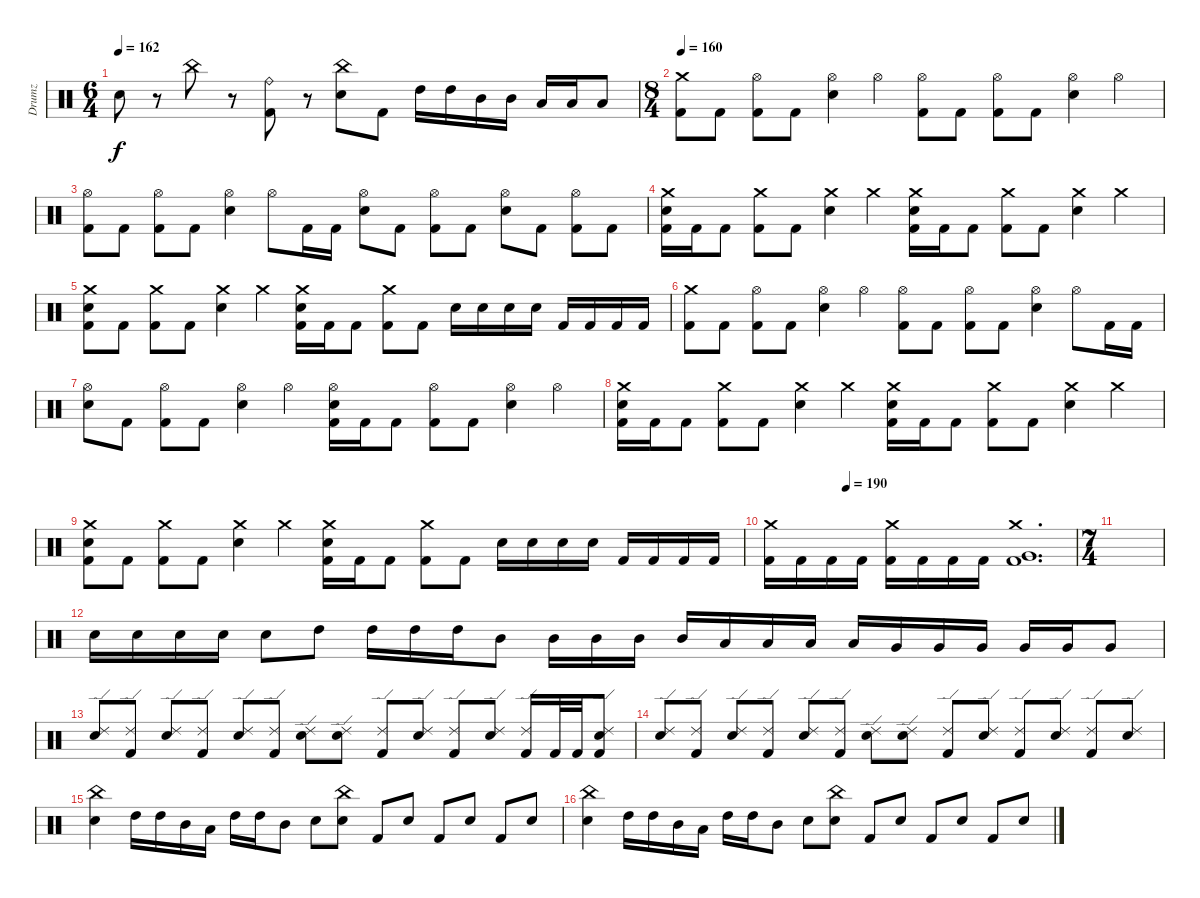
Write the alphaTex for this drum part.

\track ("Drumz" "Drumz") {instrument percussion}
\staff {score}
\articulation defaults
\ts (6 4)
\tempo 162
\clef neutral
\ks c "Electric Snare (hit)".8{dy f}
r.8 "China (hit)".8 r.8 ("Ride (bell)" "Kick (hit) 2").8 r.8 ("China (hit)" "Electric Snare (hit)").8 "Kick (hit) 2".8 "High Tom (hit)".16 "High Tom (hit)".16 "Mid Tom (hit)".16 "Mid Tom (hit)".16 "Low Tom (hit)".16 "Low Tom (hit)".16 "Low Tom (hit)".8 |
\ts (8 4)
\tempo 160
("Crash medium (hit)" "Kick (hit) 2").8 "Kick (hit) 2".8 ("Hi-Hat (open)" "Kick (hit) 2").8 "Kick (hit) 2".8 ("Hi-Hat (open)" "Electric Snare (hit)").4 "Hi-Hat (open)".4 ("Hi-Hat (open)" "Kick (hit) 2").8 "Kick (hit) 2".8 ("Hi-Hat (open)" "Kick (hit) 2").8 "Kick (hit) 2".8 ("Hi-Hat (open)" "Electric Snare (hit)").4 "Hi-Hat (open)".4 |
("Hi-Hat (open)" "Kick (hit) 2").8 "Kick (hit) 2".8 ("Hi-Hat (open)" "Kick (hit) 2").8 "Kick (hit) 2".8 ("Hi-Hat (open)" "Electric Snare (hit)").4 "Hi-Hat (open)".8 "Kick (hit) 2".16 "Kick (hit) 2".16 ("Hi-Hat (open)" "Electric Snare (hit)").8 "Kick (hit) 2".8 ("Hi-Hat (open)" "Kick (hit) 2").8 "Kick (hit) 2".8 ("Hi-Hat (open)" "Electric Snare (hit)").8 "Kick (hit) 2".8 ("Hi-Hat (open)" "Kick (hit) 2").8 "Kick (hit) 2".8 |
("Crash medium (hit)" "Electric Snare (hit)" "Kick (hit) 2").16 "Kick (hit) 2".16 "Kick (hit) 2".8 ("Crash medium (hit)" "Kick (hit) 2").8 "Kick (hit) 2".8 ("Crash medium (hit)" "Electric Snare (hit)").4 "Crash medium (hit)".4 ("Crash medium (hit)" "Electric Snare (hit)" "Kick (hit) 2").16 "Kick (hit) 2".16 "Kick (hit) 2".8 ("Crash medium (hit)" "Kick (hit) 2").8 "Kick (hit) 2".8 ("Crash medium (hit)" "Electric Snare (hit)").4 "Crash medium (hit)".4 |
("Crash medium (hit)" "Electric Snare (hit)" "Kick (hit) 2").8 "Kick (hit) 2".8 ("Crash medium (hit)" "Kick (hit) 2").8 "Kick (hit) 2".8 ("Crash medium (hit)" "Electric Snare (hit)").4 "Crash medium (hit)".4 ("Crash medium (hit)" "Electric Snare (hit)" "Kick (hit) 2").16 "Kick (hit) 2".16 "Kick (hit) 2".8 ("Crash medium (hit)" "Kick (hit) 2").8 "Kick (hit) 2".8 "Electric Snare (hit)".16 "Electric Snare (hit)".16 "Electric Snare (hit)".16 "Electric Snare (hit)".16 "Kick (hit) 2".16 "Kick (hit) 2".16 "Kick (hit) 2".16 "Kick (hit) 2".16 |
("Crash medium (hit)" "Kick (hit) 2").8 "Kick (hit) 2".8 ("Hi-Hat (open)" "Kick (hit) 2").8 "Kick (hit) 2".8 ("Hi-Hat (open)" "Electric Snare (hit)").4 "Hi-Hat (open)".4 ("Hi-Hat (open)" "Kick (hit) 2").8 "Kick (hit) 2".8 ("Hi-Hat (open)" "Kick (hit) 2").8 "Kick (hit) 2".8 ("Hi-Hat (open)" "Electric Snare (hit)").4 "Hi-Hat (open)".8 "Kick (hit) 2".16 "Kick (hit) 2".16 |
("Hi-Hat (open)" "Electric Snare (hit)").8 "Kick (hit) 2".8 ("Hi-Hat (open)" "Kick (hit) 2").8 "Kick (hit) 2".8 ("Hi-Hat (open)" "Electric Snare (hit)").4 "Hi-Hat (open)".4 ("Hi-Hat (open)" "Electric Snare (hit)" "Kick (hit) 2").16 "Kick (hit) 2".16 "Kick (hit) 2".8 ("Hi-Hat (open)" "Kick (hit) 2").8 "Kick (hit) 2".8 ("Hi-Hat (open)" "Electric Snare (hit)").4 "Hi-Hat (open)".4 |
("Crash medium (hit)" "Electric Snare (hit)" "Kick (hit) 2").16 "Kick (hit) 2".16 "Kick (hit) 2".8 ("Crash medium (hit)" "Kick (hit) 2").8 "Kick (hit) 2".8 ("Crash medium (hit)" "Electric Snare (hit)").4 "Crash medium (hit)".4 ("Crash medium (hit)" "Electric Snare (hit)" "Kick (hit) 2").16 "Kick (hit) 2".16 "Kick (hit) 2".8 ("Crash medium (hit)" "Kick (hit) 2").8 "Kick (hit) 2".8 ("Crash medium (hit)" "Electric Snare (hit)").4 "Crash medium (hit)".4 |
("Crash medium (hit)" "Electric Snare (hit)" "Kick (hit) 2").8 "Kick (hit) 2".8 ("Crash medium (hit)" "Kick (hit) 2").8 "Kick (hit) 2".8 ("Crash medium (hit)" "Electric Snare (hit)").4 "Crash medium (hit)".4 ("Crash medium (hit)" "Electric Snare (hit)" "Kick (hit) 2").16 "Kick (hit) 2".16 "Kick (hit) 2".8 ("Crash medium (hit)" "Kick (hit) 2").8 "Kick (hit) 2".8 "Electric Snare (hit)".16 "Electric Snare (hit)".16 "Electric Snare (hit)".16 "Electric Snare (hit)".16 "Kick (hit) 2".16 "Kick (hit) 2".16 "Kick (hit) 2".16 "Kick (hit) 2".16 |
\tempo (190 0.25)
("Crash medium (hit)" "Kick (hit) 2").16 "Kick (hit) 2".16 "Kick (hit) 2".16 "Kick (hit) 2".16 ("Crash medium (hit)" "Kick (hit) 2").16 "Kick (hit) 2".16 "Kick (hit) 2".16 "Kick (hit) 2".16 ("Crash medium (hit)" "Very Low Tom (hit)" "Kick (hit) 2").1{d} |
\ts (7 4)
|
"Electric Snare (hit)".16 "Electric Snare (hit)".16 "Electric Snare (hit)".16 "Electric Snare (hit)".16 "Electric Snare (hit)".8 "High Tom (hit)".8 "High Tom (hit)".16 "High Tom (hit)".16 "High Tom (hit)".16 "Mid Tom (hit)".8 "Mid Tom (hit)".16 "Mid Tom (hit)".16 "Mid Tom (hit)".16 "Mid Tom (hit)".16 "Low Tom (hit)".16 "Low Tom (hit)".16 "Low Tom (hit)".16 "Low Tom (hit)".16 "Very Low Tom (hit)".16 "Very Low Tom (hit)".16 "Very Low Tom (hit)".16 "Very Low Tom (hit)".16 "Very Low Tom (hit)".16 "Very Low Tom (hit)".8 |
("Ride (edge) 2" "Electric Snare (hit)").8{volume 7} ("Ride (edge) 2" "Kick (hit) 2").8 ("Ride (edge) 2" "Electric Snare (hit)").8 ("Ride (edge) 2" "Kick (hit) 2").8 ("Ride (edge) 2" "Electric Snare (hit)").8 ("Ride (edge) 2" "Kick (hit) 2").8 ("Ride (edge) 2" "Electric Snare (hit)").8 ("Ride (edge) 2" "Electric Snare (hit)").8 ("Ride (edge) 2" "Kick (hit) 2").8 ("Ride (edge) 2" "Electric Snare (hit)").8 ("Ride (edge) 2" "Kick (hit) 2").8 ("Ride (edge) 2" "Electric Snare (hit)").8 ("Ride (edge) 2" "Kick (hit) 2").16 "Kick (hit) 2".32 "Kick (hit) 2".32 ("Ride (edge) 2" "Electric Snare (hit)" "Kick (hit) 2").8 |
("Ride (edge) 2" "Electric Snare (hit)").8 ("Ride (edge) 2" "Kick (hit) 2").8 ("Ride (edge) 2" "Electric Snare (hit)").8 ("Ride (edge) 2" "Kick (hit) 2").8 ("Ride (edge) 2" "Electric Snare (hit)").8 ("Ride (edge) 2" "Kick (hit) 2").8 ("Ride (edge) 2" "Electric Snare (hit)").8 ("Ride (edge) 2" "Electric Snare (hit)").8 ("Ride (edge) 2" "Kick (hit) 2").8 ("Ride (edge) 2" "Electric Snare (hit)").8 ("Ride (edge) 2" "Kick (hit) 2").8 ("Ride (edge) 2" "Electric Snare (hit)").8 ("Ride (edge) 2" "Kick (hit) 2").8 ("Ride (edge) 2" "Electric Snare (hit)").8 |
("China (hit)" "Electric Snare (hit)").4 "High Tom (hit)".16 "High Tom (hit)".16 "Mid Tom (hit)".16 "Low Tom (hit)".16 "High Tom (hit)".16 "High Tom (hit)".16 "Mid Tom (hit)".8 "Electric Snare (hit)".8 ("China (hit)" "Electric Snare (hit)").8 "Kick (hit) 2".8 "Electric Snare (hit)".8 "Kick (hit) 2".8 "Electric Snare (hit)".8 "Kick (hit) 2".8 "Electric Snare (hit)".8 |
("China (hit)" "Electric Snare (hit)").4 "High Tom (hit)".16 "High Tom (hit)".16 "Mid Tom (hit)".16 "Low Tom (hit)".16 "High Tom (hit)".16 "High Tom (hit)".16 "Mid Tom (hit)".8 "Electric Snare (hit)".8 ("China (hit)" "Electric Snare (hit)").8 "Kick (hit) 2".8 "Electric Snare (hit)".8 "Kick (hit) 2".8 "Electric Snare (hit)".8 "Kick (hit) 2".8 "Electric Snare (hit)".8
